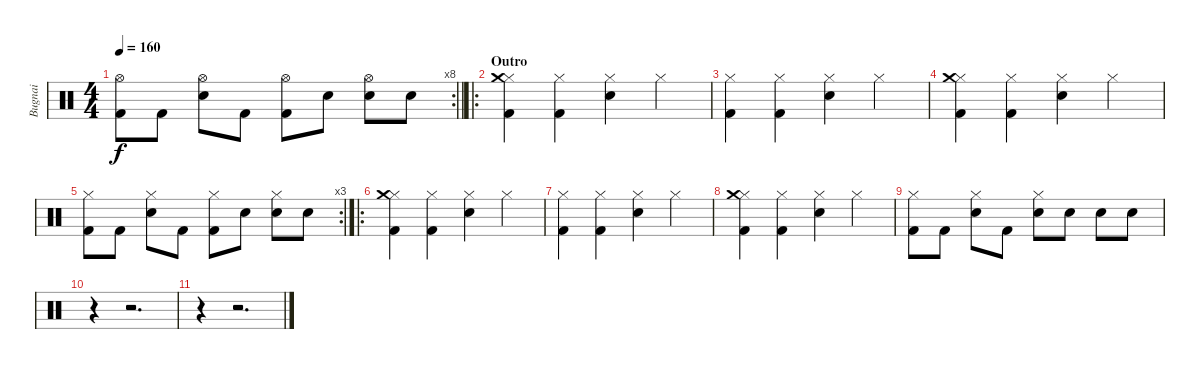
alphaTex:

\track ("Bugnai" "Bugnai") {instrument percussion}
\staff {score}
\articulation defaults
\rc 8
\ts (4 4)
\tempo 160
\clef neutral
\barLineRight lightlight
\ks c
("Hi-Hat (open)" "Kick (hit) 2").8{dy f} "Kick (hit) 2".8 ("Hi-Hat (open)" "Snare (hit) 2").8 "Kick (hit) 2".8 ("Hi-Hat (open)" "Kick (hit) 2").8 "Snare (hit) 2".8 ("Hi-Hat (open)" "Snare (hit) 2").8 "Snare (hit) 2".8 |
\ro
\section ("" "Outro")
("Hi-Hat (closed)" "Crash medium (hit)" "Kick (hit) 2").4 ("Hi-Hat (closed)" "Kick (hit) 2").4 ("Hi-Hat (closed)" "Snare (hit) 2").4 "Hi-Hat (closed)".4 |
("Hi-Hat (closed)" "Kick (hit) 2").4 ("Hi-Hat (closed)" "Kick (hit) 2").4 ("Hi-Hat (closed)" "Snare (hit) 2").4 "Hi-Hat (closed)".4 |
("Hi-Hat (closed)" "Crash medium (hit)" "Kick (hit) 2").4 ("Hi-Hat (closed)" "Kick (hit) 2").4 ("Hi-Hat (closed)" "Snare (hit) 2").4 "Hi-Hat (closed)".4 |
\rc 3
("Hi-Hat (closed)" "Kick (hit) 2").8 "Kick (hit) 2".8 ("Hi-Hat (closed)" "Snare (hit) 2").8 "Kick (hit) 2".8 ("Hi-Hat (closed)" "Kick (hit) 2").8 "Snare (hit) 2".8 ("Hi-Hat (closed)" "Snare (hit) 2").8 "Snare (hit) 2".8 |
\ro
("Hi-Hat (closed)" "Crash medium (hit)" "Kick (hit) 2").4 ("Hi-Hat (closed)" "Kick (hit) 2").4 ("Hi-Hat (closed)" "Snare (hit) 2").4 "Hi-Hat (closed)".4 |
("Hi-Hat (closed)" "Kick (hit) 2").4 ("Hi-Hat (closed)" "Kick (hit) 2").4 ("Hi-Hat (closed)" "Snare (hit) 2").4 "Hi-Hat (closed)".4 |
("Hi-Hat (closed)" "Crash medium (hit)" "Kick (hit) 2").4 ("Hi-Hat (closed)" "Kick (hit) 2").4 ("Hi-Hat (closed)" "Snare (hit) 2").4 "Hi-Hat (closed)".4 |
("Hi-Hat (closed)" "Kick (hit) 2").8 "Kick (hit) 2".8 ("Hi-Hat (closed)" "Snare (hit) 2").8 "Kick (hit) 2".8 ("Hi-Hat (closed)" "Snare (hit) 2").8 "Snare (hit) 2".8 "Snare (hit) 2".8 "Snare (hit) 2".8 |
r.4 r.2{d} |
r.4 r.2{d}
